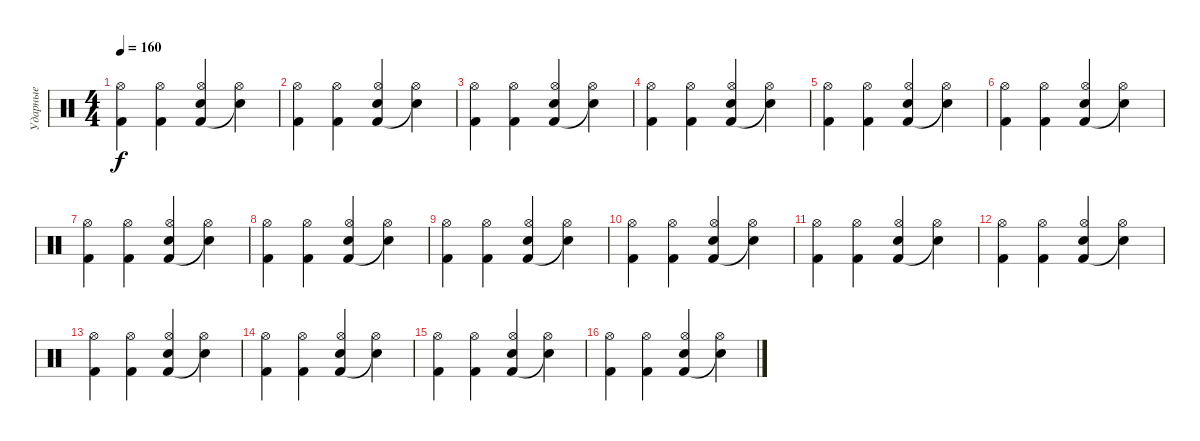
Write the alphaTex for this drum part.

\track ("Ударные" "Ударные") {instrument percussion}
\staff {score}
\articulation defaults
\ts (4 4)
\tempo 160
\clef neutral
\ks c
("Kick (hit) 2" "Hi-Hat (open)").4{dy f} ("Kick (hit) 2" "Hi-Hat (open)").4 ("Kick (hit) 2" "Electric Snare (hit)" "Hi-Hat (open)").4 ("Snare (hit)"{t} "Hi-Hat (open)").4 |
("Kick (hit) 2" "Hi-Hat (open)").4 ("Kick (hit) 2" "Hi-Hat (open)").4 ("Kick (hit) 2" "Electric Snare (hit)" "Hi-Hat (open)").4 ("Snare (hit)"{t} "Hi-Hat (open)").4 |
("Kick (hit) 2" "Hi-Hat (open)").4 ("Kick (hit) 2" "Hi-Hat (open)").4 ("Kick (hit) 2" "Electric Snare (hit)" "Hi-Hat (open)").4 ("Snare (hit)"{t} "Hi-Hat (open)").4 |
("Kick (hit) 2" "Hi-Hat (open)").4 ("Kick (hit) 2" "Hi-Hat (open)").4 ("Kick (hit) 2" "Electric Snare (hit)" "Hi-Hat (open)").4 ("Snare (hit)"{t} "Hi-Hat (open)").4 |
("Kick (hit) 2" "Hi-Hat (open)").4 ("Kick (hit) 2" "Hi-Hat (open)").4 ("Kick (hit) 2" "Electric Snare (hit)" "Hi-Hat (open)").4 ("Snare (hit)"{t} "Hi-Hat (open)").4 |
("Kick (hit) 2" "Hi-Hat (open)").4 ("Kick (hit) 2" "Hi-Hat (open)").4 ("Kick (hit) 2" "Electric Snare (hit)" "Hi-Hat (open)").4 ("Snare (hit)"{t} "Hi-Hat (open)").4 |
("Kick (hit) 2" "Hi-Hat (open)").4 ("Kick (hit) 2" "Hi-Hat (open)").4 ("Kick (hit) 2" "Electric Snare (hit)" "Hi-Hat (open)").4 ("Snare (hit)"{t} "Hi-Hat (open)").4 |
("Kick (hit) 2" "Hi-Hat (open)").4 ("Kick (hit) 2" "Hi-Hat (open)").4 ("Kick (hit) 2" "Electric Snare (hit)" "Hi-Hat (open)").4 ("Snare (hit)"{t} "Hi-Hat (open)").4 |
("Kick (hit) 2" "Hi-Hat (open)").4 ("Kick (hit) 2" "Hi-Hat (open)").4 ("Kick (hit) 2" "Electric Snare (hit)" "Hi-Hat (open)").4 ("Snare (hit)"{t} "Hi-Hat (open)").4 |
("Kick (hit) 2" "Hi-Hat (open)").4 ("Kick (hit) 2" "Hi-Hat (open)").4 ("Kick (hit) 2" "Electric Snare (hit)" "Hi-Hat (open)").4 ("Snare (hit)"{t} "Hi-Hat (open)").4 |
("Kick (hit) 2" "Hi-Hat (open)").4 ("Kick (hit) 2" "Hi-Hat (open)").4 ("Kick (hit) 2" "Electric Snare (hit)" "Hi-Hat (open)").4 ("Snare (hit)"{t} "Hi-Hat (open)").4 |
("Kick (hit) 2" "Hi-Hat (open)").4 ("Kick (hit) 2" "Hi-Hat (open)").4 ("Kick (hit) 2" "Electric Snare (hit)" "Hi-Hat (open)").4 ("Snare (hit)"{t} "Hi-Hat (open)").4 |
("Kick (hit) 2" "Hi-Hat (open)").4 ("Kick (hit) 2" "Hi-Hat (open)").4 ("Kick (hit) 2" "Electric Snare (hit)" "Hi-Hat (open)").4 ("Snare (hit)"{t} "Hi-Hat (open)").4 |
("Kick (hit) 2" "Hi-Hat (open)").4 ("Kick (hit) 2" "Hi-Hat (open)").4 ("Kick (hit) 2" "Electric Snare (hit)" "Hi-Hat (open)").4 ("Snare (hit)"{t} "Hi-Hat (open)").4 |
("Kick (hit) 2" "Hi-Hat (open)").4 ("Kick (hit) 2" "Hi-Hat (open)").4 ("Kick (hit) 2" "Electric Snare (hit)" "Hi-Hat (open)").4 ("Snare (hit)"{t} "Hi-Hat (open)").4 |
("Kick (hit) 2" "Hi-Hat (open)").4 ("Kick (hit) 2" "Hi-Hat (open)").4 ("Kick (hit) 2" "Electric Snare (hit)" "Hi-Hat (open)").4 ("Snare (hit)"{t} "Hi-Hat (open)").4
